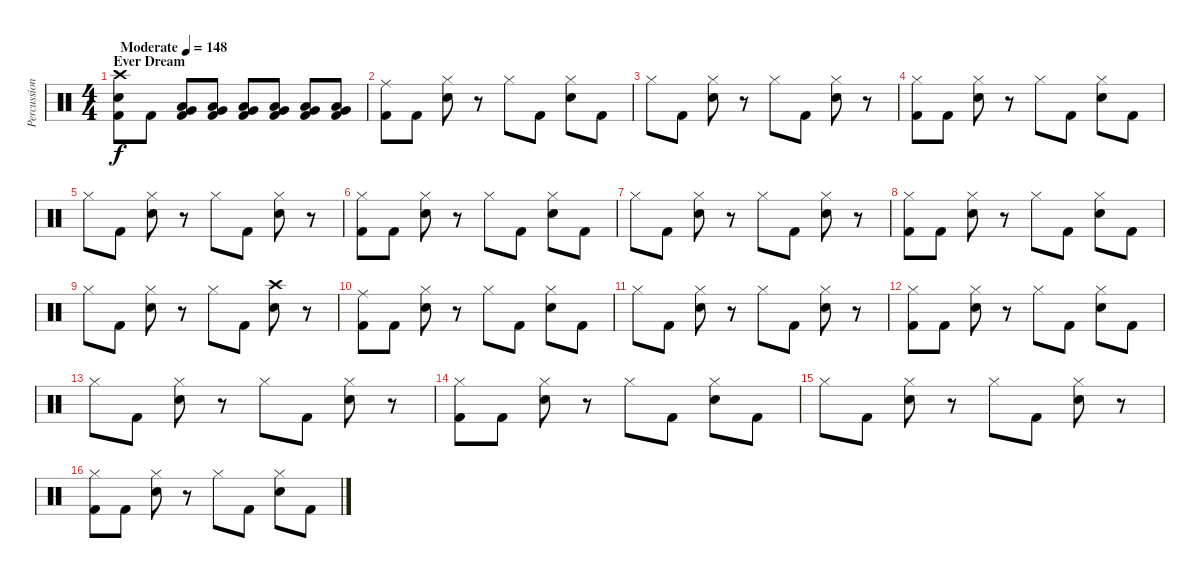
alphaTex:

\track ("Percussion" "Percussion") {instrument percussion}
\staff {score}
\articulation defaults
\ts (4 4)
\section ("" "Ever Dream")
\tempo (148 "Moderate")
\clef neutral
\ks c
("Crash high (hit)" "Electric Snare (hit)" "Kick (hit) 2").8{dy f} "Kick (hit) 2".8 ("Very Low Tom (hit)" "Low Floor Tom (hit)" "Kick (hit) 2").8 ("Very Low Tom (hit)" "Low Floor Tom (hit)" "Kick (hit) 2").8 ("Very Low Tom (hit)" "Low Floor Tom (hit)" "Kick (hit) 2").8 ("Very Low Tom (hit)" "Low Floor Tom (hit)" "Kick (hit) 2").8 ("Very Low Tom (hit)" "Low Floor Tom (hit)" "Kick (hit) 2").8 ("Very Low Tom (hit)" "Low Floor Tom (hit)" "Kick (hit) 2").8 |
("Ride (middle)" "Kick (hit) 2").8 "Kick (hit) 2".8 ("Hi-Hat (closed)" "Electric Snare (hit)").8 r.8 "Hi-Hat (closed)".8 "Kick (hit) 2".8 ("Hi-Hat (closed)" "Electric Snare (hit)").8 "Kick (hit) 2".8 |
"Hi-Hat (closed)".8 "Kick (hit) 2".8 ("Hi-Hat (closed)" "Electric Snare (hit)").8 r.8 "Hi-Hat (closed)".8 "Kick (hit) 2".8 ("Hi-Hat (closed)" "Electric Snare (hit)").8 r.8 |
("Hi-Hat (closed)" "Kick (hit) 2").8 "Kick (hit) 2".8 ("Hi-Hat (closed)" "Electric Snare (hit)").8 r.8 "Hi-Hat (closed)".8 "Kick (hit) 2".8 ("Hi-Hat (closed)" "Electric Snare (hit)").8 "Kick (hit) 2".8 |
"Hi-Hat (closed)".8 "Kick (hit) 2".8 ("Hi-Hat (closed)" "Electric Snare (hit)").8 r.8 "Hi-Hat (closed)".8 "Kick (hit) 2".8 ("Hi-Hat (closed)" "Electric Snare (hit)").8 r.8 |
("Hi-Hat (closed)" "Kick (hit) 2").8 "Kick (hit) 2".8 ("Hi-Hat (closed)" "Electric Snare (hit)").8 r.8 "Hi-Hat (closed)".8 "Kick (hit) 2".8 ("Hi-Hat (closed)" "Electric Snare (hit)").8 "Kick (hit) 2".8 |
"Hi-Hat (closed)".8 "Kick (hit) 2".8 ("Hi-Hat (closed)" "Electric Snare (hit)").8 r.8 "Hi-Hat (closed)".8 "Kick (hit) 2".8 ("Hi-Hat (closed)" "Electric Snare (hit)").8 r.8 |
("Hi-Hat (closed)" "Kick (hit) 2").8 "Kick (hit) 2".8 ("Hi-Hat (closed)" "Electric Snare (hit)").8 r.8 "Hi-Hat (closed)".8 "Kick (hit) 2".8 ("Hi-Hat (closed)" "Electric Snare (hit)").8 "Kick (hit) 2".8 |
"Hi-Hat (closed)".8 "Kick (hit) 2".8 ("Hi-Hat (closed)" "Electric Snare (hit)").8 r.8 "Hi-Hat (closed)".8 "Kick (hit) 2".8 ("Crash high (hit)" "Electric Snare (hit)").8 r.8 |
("Ride (middle)" "Kick (hit) 2").8 "Kick (hit) 2".8 ("Hi-Hat (closed)" "Electric Snare (hit)").8 r.8 "Hi-Hat (closed)".8 "Kick (hit) 2".8 ("Hi-Hat (closed)" "Electric Snare (hit)").8 "Kick (hit) 2".8 |
"Hi-Hat (closed)".8 "Kick (hit) 2".8 ("Hi-Hat (closed)" "Electric Snare (hit)").8 r.8 "Hi-Hat (closed)".8 "Kick (hit) 2".8 ("Hi-Hat (closed)" "Electric Snare (hit)").8 r.8 |
("Hi-Hat (closed)" "Kick (hit) 2").8 "Kick (hit) 2".8 ("Hi-Hat (closed)" "Electric Snare (hit)").8 r.8 "Hi-Hat (closed)".8 "Kick (hit) 2".8 ("Hi-Hat (closed)" "Electric Snare (hit)").8 "Kick (hit) 2".8 |
"Hi-Hat (closed)".8 "Kick (hit) 2".8 ("Hi-Hat (closed)" "Electric Snare (hit)").8 r.8 "Hi-Hat (closed)".8 "Kick (hit) 2".8 ("Hi-Hat (closed)" "Electric Snare (hit)").8 r.8 |
("Hi-Hat (closed)" "Kick (hit) 2").8 "Kick (hit) 2".8 ("Hi-Hat (closed)" "Electric Snare (hit)").8 r.8 "Hi-Hat (closed)".8 "Kick (hit) 2".8 ("Hi-Hat (closed)" "Electric Snare (hit)").8 "Kick (hit) 2".8 |
"Hi-Hat (closed)".8 "Kick (hit) 2".8 ("Hi-Hat (closed)" "Electric Snare (hit)").8 r.8 "Hi-Hat (closed)".8 "Kick (hit) 2".8 ("Hi-Hat (closed)" "Electric Snare (hit)").8 r.8 |
("Hi-Hat (closed)" "Kick (hit) 2").8 "Kick (hit) 2".8 ("Hi-Hat (closed)" "Electric Snare (hit)").8 r.8 "Hi-Hat (closed)".8 "Kick (hit) 2".8 ("Hi-Hat (closed)" "Electric Snare (hit)").8 "Kick (hit) 2".8
